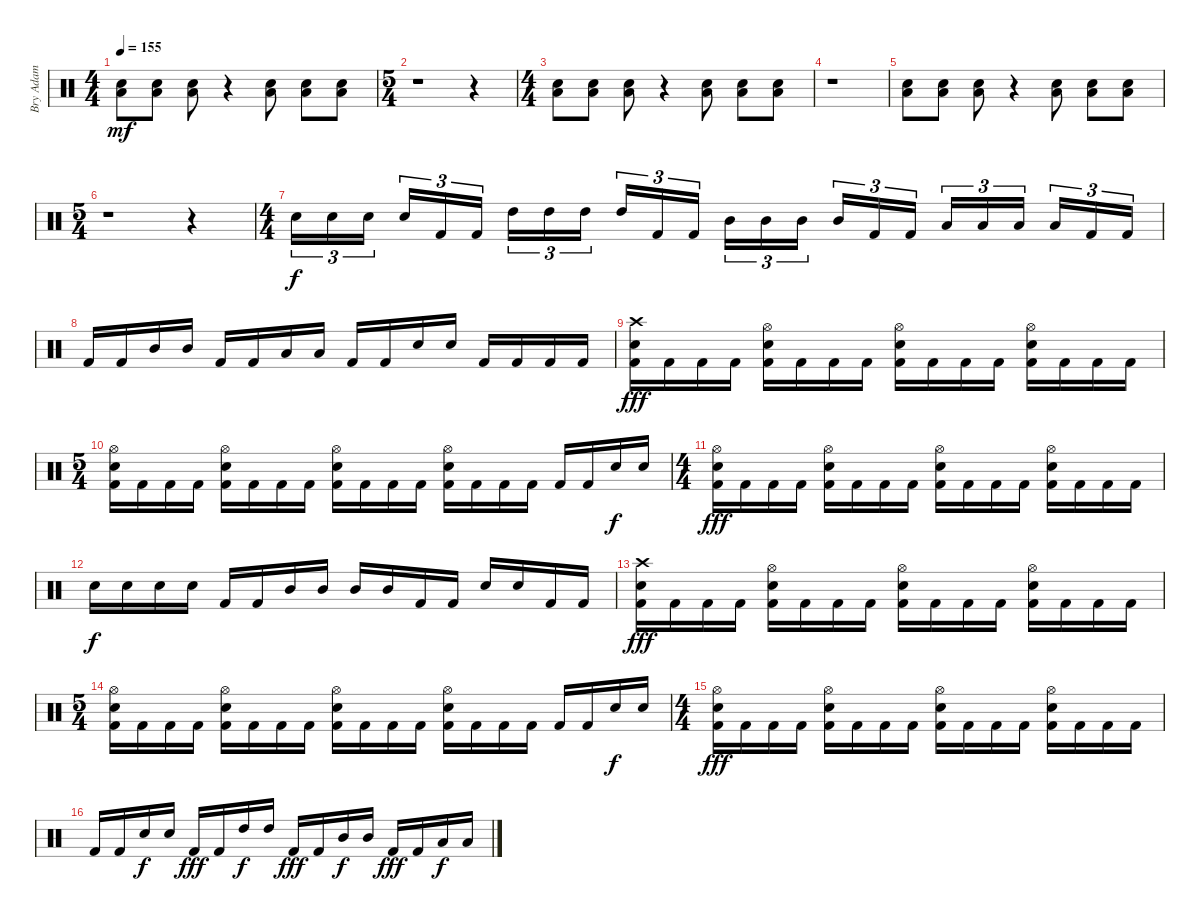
\track ("Bry Adam " "Bry Adam ") {instrument percussion}
\staff {score}
\articulation defaults
\ts (4 4)
\tempo 155
\clef neutral
\ks c
("Low Tom (hit)" "Snare (hit) 2").8{dy mf} ("Low Tom (hit)" "Snare (hit) 2").8 ("Low Tom (hit)" "Snare (hit) 2").8 r.4 ("Low Tom (hit)" "Snare (hit) 2").8 ("Low Tom (hit)" "Snare (hit) 2").8 ("Low Tom (hit)" "Snare (hit) 2").8 |
\ts (5 4)
r.1 r.4 |
\ts (4 4)
("Low Tom (hit)" "Snare (hit) 2").8 ("Low Tom (hit)" "Snare (hit) 2").8 ("Low Tom (hit)" "Snare (hit) 2").8 r.4 ("Low Tom (hit)" "Snare (hit) 2").8 ("Low Tom (hit)" "Snare (hit) 2").8 ("Low Tom (hit)" "Snare (hit) 2").8 |
r.1 |
("Low Tom (hit)" "Snare (hit) 2").8 ("Low Tom (hit)" "Snare (hit) 2").8 ("Low Tom (hit)" "Snare (hit) 2").8 r.4 ("Low Tom (hit)" "Snare (hit) 2").8 ("Low Tom (hit)" "Snare (hit) 2").8 ("Low Tom (hit)" "Snare (hit) 2").8 |
\ts (5 4)
r.1 r.4 |
\ts (4 4)
"Snare (hit) 2".16{tu (3 2) dy f} "Snare (hit) 2".16{tu (3 2)} "Snare (hit) 2".16{tu (3 2)} "Snare (hit) 2".16{tu (3 2)} "Kick (hit) 2".16{tu (3 2)} "Kick (hit) 2".16{tu (3 2)} "High Tom (hit)".16{tu (3 2)} "High Tom (hit)".16{tu (3 2)} "High Tom (hit)".16{tu (3 2)} "High Tom (hit)".16{tu (3 2)} "Kick (hit) 2".16{tu (3 2)} "Kick (hit) 2".16{tu (3 2)} "Mid Tom (hit)".16{tu (3 2)} "Mid Tom (hit)".16{tu (3 2)} "Mid Tom (hit)".16{tu (3 2)} "Mid Tom (hit)".16{tu (3 2)} "Kick (hit) 2".16{tu (3 2)} "Kick (hit) 2".16{tu (3 2)} "Low Tom (hit)".16{tu (3 2)} "Low Tom (hit)".16{tu (3 2)} "Low Tom (hit)".16{tu (3 2)} "Low Tom (hit)".16{tu (3 2)} "Kick (hit) 2".16{tu (3 2)} "Kick (hit) 2".16{tu (3 2)} |
"Kick (hit) 2".16 "Kick (hit) 2".16 "Mid Tom (hit)".16 "Mid Tom (hit)".16 "Kick (hit) 2".16 "Kick (hit) 2".16 "Low Tom (hit)".16 "Low Tom (hit)".16 "Kick (hit) 2".16 "Kick (hit) 2".16 "Snare (hit) 2".16 "Snare (hit) 2".16 "Kick (hit) 2".16 "Kick (hit) 2".16 "Kick (hit) 2".16 "Kick (hit) 2".16 |
("Crash high (hit)" "Snare (hit) 2" "Kick (hit) 2").16{dy fff} "Kick (hit) 2".16 "Kick (hit) 2".16 "Kick (hit) 2".16 ("Hi-Hat (open)" "Snare (hit) 2" "Kick (hit) 2").16 "Kick (hit) 2".16 "Kick (hit) 2".16 "Kick (hit) 2".16 ("Hi-Hat (open)" "Snare (hit) 2" "Kick (hit) 2").16 "Kick (hit) 2".16 "Kick (hit) 2".16 "Kick (hit) 2".16 ("Hi-Hat (open)" "Snare (hit) 2" "Kick (hit) 2").16 "Kick (hit) 2".16 "Kick (hit) 2".16 "Kick (hit) 2".16 |
\ts (5 4)
("Hi-Hat (open)" "Snare (hit) 2" "Kick (hit) 2").16 "Kick (hit) 2".16 "Kick (hit) 2".16 "Kick (hit) 2".16 ("Hi-Hat (open)" "Snare (hit) 2" "Kick (hit) 2").16 "Kick (hit) 2".16 "Kick (hit) 2".16 "Kick (hit) 2".16 ("Hi-Hat (open)" "Snare (hit) 2" "Kick (hit) 2").16 "Kick (hit) 2".16 "Kick (hit) 2".16 "Kick (hit) 2".16 ("Hi-Hat (open)" "Snare (hit) 2" "Kick (hit) 2").16 "Kick (hit) 2".16 "Kick (hit) 2".16 "Kick (hit) 2".16 "Kick (hit) 2".16 "Kick (hit) 2".16 "Snare (hit) 2".16{dy f} "Snare (hit) 2".16 |
\ts (4 4)
("Hi-Hat (open)" "Snare (hit) 2" "Kick (hit) 2").16{dy fff} "Kick (hit) 2".16 "Kick (hit) 2".16 "Kick (hit) 2".16 ("Hi-Hat (open)" "Snare (hit) 2" "Kick (hit) 2").16 "Kick (hit) 2".16 "Kick (hit) 2".16 "Kick (hit) 2".16 ("Hi-Hat (open)" "Snare (hit) 2" "Kick (hit) 2").16 "Kick (hit) 2".16 "Kick (hit) 2".16 "Kick (hit) 2".16 ("Hi-Hat (open)" "Snare (hit) 2" "Kick (hit) 2").16 "Kick (hit) 2".16 "Kick (hit) 2".16 "Kick (hit) 2".16 |
"Snare (hit) 2".16{dy f} "Snare (hit) 2".16 "Snare (hit) 2".16 "Snare (hit) 2".16 "Kick (hit) 2".16 "Kick (hit) 2".16 "Mid Tom (hit)".16 "Mid Tom (hit)".16 "Mid Tom (hit)".16 "Mid Tom (hit)".16 "Kick (hit) 2".16 "Kick (hit) 2".16 "Snare (hit) 2".16 "Snare (hit) 2".16 "Kick (hit) 2".16 "Kick (hit) 2".16 |
("Crash high (hit)" "Snare (hit) 2" "Kick (hit) 2").16{dy fff} "Kick (hit) 2".16 "Kick (hit) 2".16 "Kick (hit) 2".16 ("Hi-Hat (open)" "Snare (hit) 2" "Kick (hit) 2").16 "Kick (hit) 2".16 "Kick (hit) 2".16 "Kick (hit) 2".16 ("Hi-Hat (open)" "Snare (hit) 2" "Kick (hit) 2").16 "Kick (hit) 2".16 "Kick (hit) 2".16 "Kick (hit) 2".16 ("Hi-Hat (open)" "Snare (hit) 2" "Kick (hit) 2").16 "Kick (hit) 2".16 "Kick (hit) 2".16 "Kick (hit) 2".16 |
\ts (5 4)
("Hi-Hat (open)" "Snare (hit) 2" "Kick (hit) 2").16 "Kick (hit) 2".16 "Kick (hit) 2".16 "Kick (hit) 2".16 ("Hi-Hat (open)" "Snare (hit) 2" "Kick (hit) 2").16 "Kick (hit) 2".16 "Kick (hit) 2".16 "Kick (hit) 2".16 ("Hi-Hat (open)" "Snare (hit) 2" "Kick (hit) 2").16 "Kick (hit) 2".16 "Kick (hit) 2".16 "Kick (hit) 2".16 ("Hi-Hat (open)" "Snare (hit) 2" "Kick (hit) 2").16 "Kick (hit) 2".16 "Kick (hit) 2".16 "Kick (hit) 2".16 "Kick (hit) 2".16 "Kick (hit) 2".16 "Snare (hit) 2".16{dy f} "Snare (hit) 2".16 |
\ts (4 4)
("Hi-Hat (open)" "Snare (hit) 2" "Kick (hit) 2").16{dy fff} "Kick (hit) 2".16 "Kick (hit) 2".16 "Kick (hit) 2".16 ("Hi-Hat (open)" "Snare (hit) 2" "Kick (hit) 2").16 "Kick (hit) 2".16 "Kick (hit) 2".16 "Kick (hit) 2".16 ("Hi-Hat (open)" "Snare (hit) 2" "Kick (hit) 2").16 "Kick (hit) 2".16 "Kick (hit) 2".16 "Kick (hit) 2".16 ("Hi-Hat (open)" "Snare (hit) 2" "Kick (hit) 2").16 "Kick (hit) 2".16 "Kick (hit) 2".16 "Kick (hit) 2".16 |
"Kick (hit) 2".16 "Kick (hit) 2".16 "Snare (hit) 2".16{dy f} "Snare (hit) 2".16 "Kick (hit) 2".16{dy fff} "Kick (hit) 2".16 "High Tom (hit)".16{dy f} "High Tom (hit)".16 "Kick (hit) 2".16{dy fff} "Kick (hit) 2".16 "Mid Tom (hit)".16{dy f} "Mid Tom (hit)".16 "Kick (hit) 2".16{dy fff} "Kick (hit) 2".16 "Low Tom (hit)".16{dy f} "Low Tom (hit)".16
